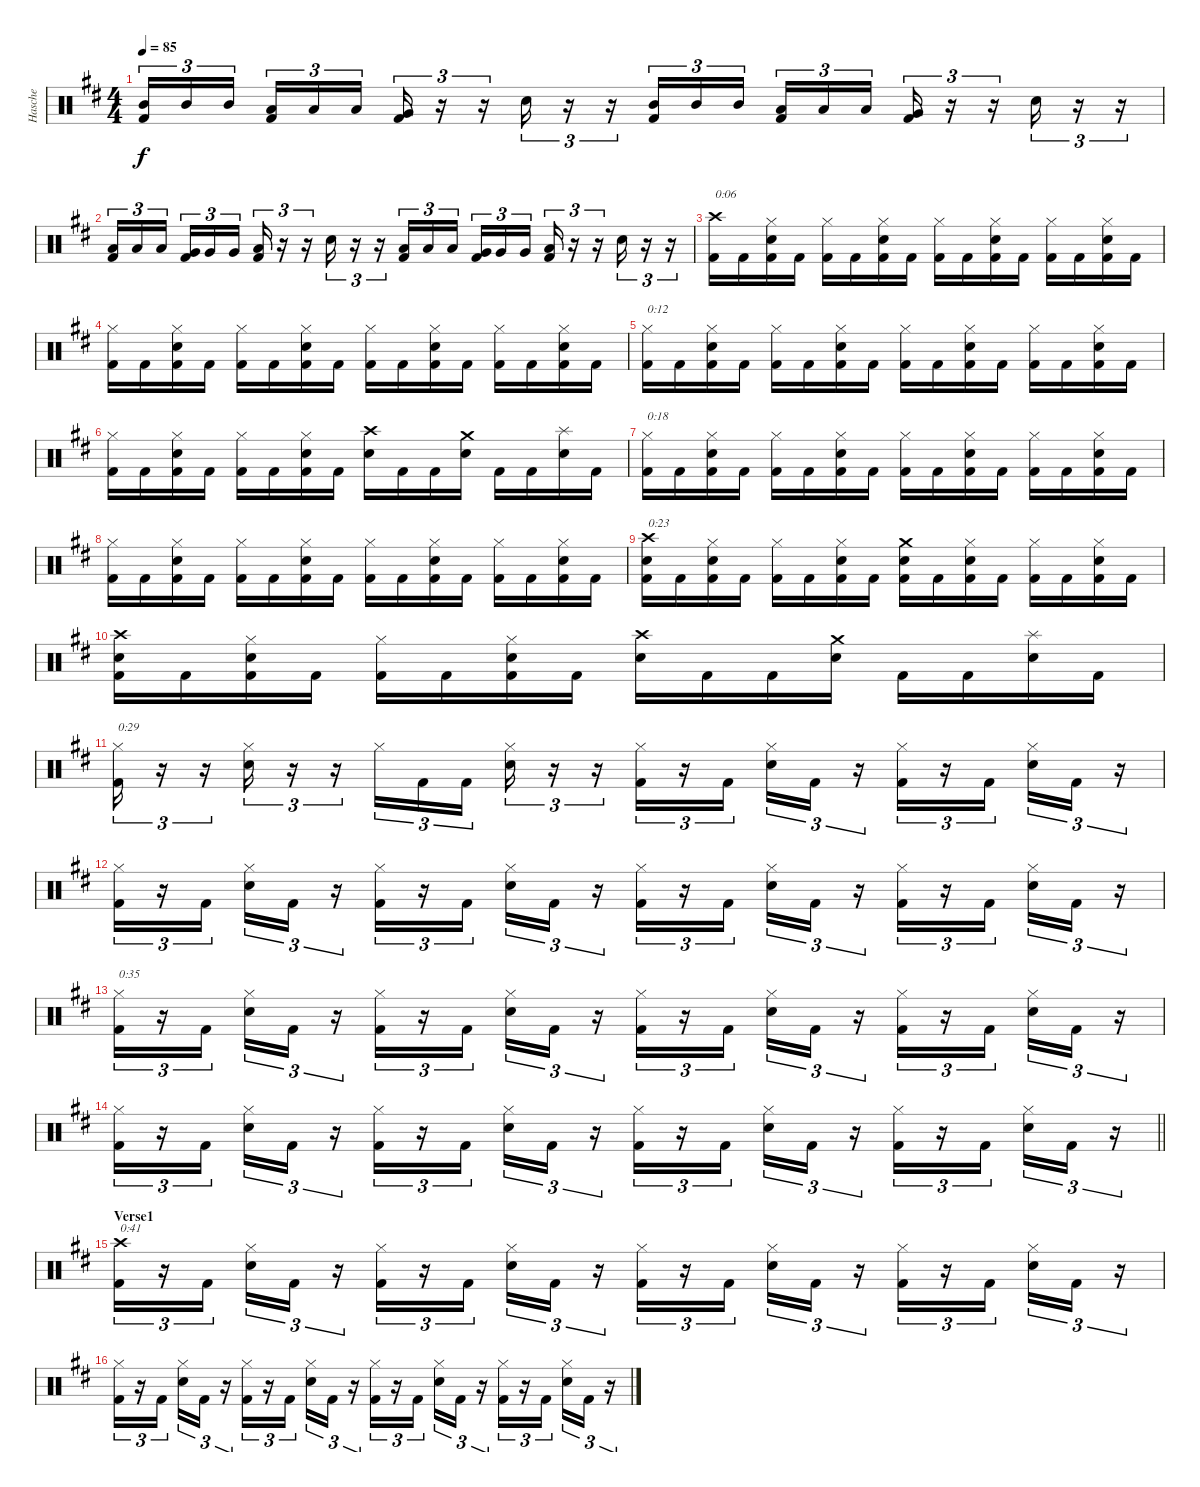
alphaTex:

\track ("Hasche" "Hasche") {instrument percussion}
\staff {score}
\articulation defaults
\ts (4 4)
\tempo 85
\clef neutral
\ks bminor
("Mid Tom (hit)" "Kick (hit) 2").16{tu (3 2) dy f} "Mid Tom (hit)".16{tu (3 2)} "Mid Tom (hit)".16{tu (3 2) beam splitsecondary} ("Low Tom (hit)" "Kick (hit) 2").16{tu (3 2)} "Low Tom (hit)".16{tu (3 2)} "Low Tom (hit)".16{tu (3 2)} ("Very Low Tom (hit)" "Kick (hit) 2").16{tu (3 2)} r.16{tu (3 2)} r.16{tu (3 2)} "Snare (hit) 2".16{tu (3 2)} r.16{tu (3 2)} r.16{tu (3 2)} ("Mid Tom (hit)" "Kick (hit) 2").16{tu (3 2)} "Mid Tom (hit)".16{tu (3 2)} "Mid Tom (hit)".16{tu (3 2) beam splitsecondary} ("Low Tom (hit)" "Kick (hit) 2").16{tu (3 2)} "Low Tom (hit)".16{tu (3 2)} "Low Tom (hit)".16{tu (3 2)} ("Very Low Tom (hit)" "Kick (hit) 2").16{tu (3 2)} r.16{tu (3 2)} r.16{tu (3 2)} "Snare (hit) 2".16{tu (3 2)} r.16{tu (3 2)} r.16{tu (3 2)} |
("Low Tom (hit)" "Kick (hit) 2").16{tu (3 2)} "Low Tom (hit)".16{tu (3 2)} "Low Tom (hit)".16{tu (3 2) beam splitsecondary} ("Very Low Tom (hit)" "Kick (hit) 2").16{tu (3 2)} "Very Low Tom (hit)".16{tu (3 2)} "Very Low Tom (hit)".16{tu (3 2)} ("Low Floor Tom (hit)" "Kick (hit) 2").16{tu (3 2)} r.16{tu (3 2)} r.16{tu (3 2)} "Snare (hit) 2".16{tu (3 2)} r.16{tu (3 2)} r.16{tu (3 2)} ("Low Tom (hit)" "Kick (hit) 2").16{tu (3 2)} "Low Tom (hit)".16{tu (3 2)} "Low Tom (hit)".16{tu (3 2) beam splitsecondary} ("Very Low Tom (hit)" "Kick (hit) 2").16{tu (3 2)} "Very Low Tom (hit)".16{tu (3 2)} "Very Low Tom (hit)".16{tu (3 2)} ("Low Floor Tom (hit)" "Kick (hit) 2").16{tu (3 2)} r.16{tu (3 2)} r.16{tu (3 2)} "Snare (hit) 2".16{tu (3 2)} r.16{tu (3 2)} r.16{tu (3 2)} |
("Crash high (hit)" "Kick (hit) 2").16{txt "0:06"} "Kick (hit) 2".16 ("Hi-Hat (closed)" "Snare (hit) 2" "Kick (hit) 2").16 "Kick (hit) 2".16 ("Hi-Hat (closed)" "Kick (hit) 2").16 "Kick (hit) 2".16 ("Hi-Hat (closed)" "Snare (hit) 2" "Kick (hit) 2").16 "Kick (hit) 2".16 ("Hi-Hat (closed)" "Kick (hit) 2").16 "Kick (hit) 2".16 ("Hi-Hat (closed)" "Snare (hit) 2" "Kick (hit) 2").16 "Kick (hit) 2".16 ("Hi-Hat (closed)" "Kick (hit) 2").16 "Kick (hit) 2".16 ("Hi-Hat (closed)" "Snare (hit) 2" "Kick (hit) 2").16 "Kick (hit) 2".16 |
("Hi-Hat (closed)" "Kick (hit) 2").16 "Kick (hit) 2".16 ("Hi-Hat (closed)" "Snare (hit) 2" "Kick (hit) 2").16 "Kick (hit) 2".16 ("Hi-Hat (closed)" "Kick (hit) 2").16 "Kick (hit) 2".16 ("Hi-Hat (closed)" "Snare (hit) 2" "Kick (hit) 2").16 "Kick (hit) 2".16 ("Hi-Hat (closed)" "Kick (hit) 2").16 "Kick (hit) 2".16 ("Hi-Hat (closed)" "Snare (hit) 2" "Kick (hit) 2").16 "Kick (hit) 2".16 ("Hi-Hat (closed)" "Kick (hit) 2").16 "Kick (hit) 2".16 ("Hi-Hat (closed)" "Snare (hit) 2" "Kick (hit) 2").16 "Kick (hit) 2".16 |
("Hi-Hat (closed)" "Kick (hit) 2").16{txt "0:12"} "Kick (hit) 2".16 ("Hi-Hat (closed)" "Snare (hit) 2" "Kick (hit) 2").16 "Kick (hit) 2".16 ("Hi-Hat (closed)" "Kick (hit) 2").16 "Kick (hit) 2".16 ("Hi-Hat (closed)" "Snare (hit) 2" "Kick (hit) 2").16 "Kick (hit) 2".16 ("Hi-Hat (closed)" "Kick (hit) 2").16 "Kick (hit) 2".16 ("Hi-Hat (closed)" "Snare (hit) 2" "Kick (hit) 2").16 "Kick (hit) 2".16 ("Hi-Hat (closed)" "Kick (hit) 2").16 "Kick (hit) 2".16 ("Hi-Hat (closed)" "Snare (hit) 2" "Kick (hit) 2").16 "Kick (hit) 2".16 |
("Hi-Hat (closed)" "Kick (hit) 2").16 "Kick (hit) 2".16 ("Hi-Hat (closed)" "Snare (hit) 2" "Kick (hit) 2").16 "Kick (hit) 2".16 ("Hi-Hat (closed)" "Kick (hit) 2").16 "Kick (hit) 2".16 ("Hi-Hat (closed)" "Snare (hit) 2" "Kick (hit) 2").16 "Kick (hit) 2".16 ("Crash high (hit)" "Snare (hit) 2").16 "Kick (hit) 2".16 "Kick (hit) 2".16 ("Crash medium (hit)" "Snare (hit) 2").16 "Kick (hit) 2".16 "Kick (hit) 2".16 ("Splash (hit)" "Snare (hit) 2").16 "Kick (hit) 2".16 |
("Hi-Hat (closed)" "Kick (hit) 2").16{txt "0:18"} "Kick (hit) 2".16 ("Hi-Hat (closed)" "Snare (hit) 2" "Kick (hit) 2").16 "Kick (hit) 2".16 ("Hi-Hat (closed)" "Kick (hit) 2").16 "Kick (hit) 2".16 ("Hi-Hat (closed)" "Snare (hit) 2" "Kick (hit) 2").16 "Kick (hit) 2".16 ("Hi-Hat (closed)" "Kick (hit) 2").16 "Kick (hit) 2".16 ("Hi-Hat (closed)" "Snare (hit) 2" "Kick (hit) 2").16 "Kick (hit) 2".16 ("Hi-Hat (closed)" "Kick (hit) 2").16 "Kick (hit) 2".16 ("Hi-Hat (closed)" "Snare (hit) 2" "Kick (hit) 2").16 "Kick (hit) 2".16 |
("Hi-Hat (closed)" "Kick (hit) 2").16 "Kick (hit) 2".16 ("Hi-Hat (closed)" "Snare (hit) 2" "Kick (hit) 2").16 "Kick (hit) 2".16 ("Hi-Hat (closed)" "Kick (hit) 2").16 "Kick (hit) 2".16 ("Hi-Hat (closed)" "Snare (hit) 2" "Kick (hit) 2").16 "Kick (hit) 2".16 ("Hi-Hat (closed)" "Kick (hit) 2").16 "Kick (hit) 2".16 ("Hi-Hat (closed)" "Snare (hit) 2" "Kick (hit) 2").16 "Kick (hit) 2".16 ("Hi-Hat (closed)" "Kick (hit) 2").16 "Kick (hit) 2".16 ("Hi-Hat (closed)" "Snare (hit) 2" "Kick (hit) 2").16 "Kick (hit) 2".16 |
("Crash high (hit)" "Snare (hit) 2" "Kick (hit) 2").16{txt "0:23"} "Kick (hit) 2".16 ("Hi-Hat (closed)" "Snare (hit) 2" "Kick (hit) 2").16 "Kick (hit) 2".16 ("Hi-Hat (closed)" "Kick (hit) 2").16 "Kick (hit) 2".16 ("Hi-Hat (closed)" "Snare (hit) 2" "Kick (hit) 2").16 "Kick (hit) 2".16 ("Crash medium (hit)" "Snare (hit) 2" "Kick (hit) 2").16 "Kick (hit) 2".16 ("Hi-Hat (closed)" "Snare (hit) 2" "Kick (hit) 2").16 "Kick (hit) 2".16 ("Hi-Hat (closed)" "Kick (hit) 2").16 "Kick (hit) 2".16 ("Hi-Hat (closed)" "Snare (hit) 2" "Kick (hit) 2").16 "Kick (hit) 2".16 |
("Crash high (hit)" "Snare (hit) 2" "Kick (hit) 2").16 "Kick (hit) 2".16 ("Hi-Hat (closed)" "Snare (hit) 2" "Kick (hit) 2").16 "Kick (hit) 2".16 ("Hi-Hat (closed)" "Kick (hit) 2").16 "Kick (hit) 2".16 ("Hi-Hat (closed)" "Snare (hit) 2" "Kick (hit) 2").16 "Kick (hit) 2".16 ("Crash high (hit)" "Snare (hit) 2").16 "Kick (hit) 2".16 "Kick (hit) 2".16 ("Crash medium (hit)" "Snare (hit) 2").16 "Kick (hit) 2".16 "Kick (hit) 2".16 ("Splash (hit)" "Snare (hit) 2").16 "Kick (hit) 2".16 |
("Hi-Hat (closed)" "Kick (hit) 2").16{tu (3 2) txt "0:29"} r.16{tu (3 2)} r.16{tu (3 2)} ("Hi-Hat (closed)" "Snare (hit) 2").16{tu (3 2)} r.16{tu (3 2)} r.16{tu (3 2)} "Hi-Hat (closed)".16{tu (3 2)} "Kick (hit) 2".16{tu (3 2)} "Kick (hit) 2".16{tu (3 2) beam splitsecondary} ("Hi-Hat (closed)" "Snare (hit) 2").16{tu (3 2)} r.16{tu (3 2)} r.16{tu (3 2)} ("Hi-Hat (closed)" "Kick (hit) 2").16{tu (3 2)} r.16{tu (3 2)} "Kick (hit) 2".16{tu (3 2) beam splitsecondary} ("Hi-Hat (closed)" "Snare (hit) 2").16{tu (3 2)} "Kick (hit) 2".16{tu (3 2)} r.16{tu (3 2)} ("Hi-Hat (closed)" "Kick (hit) 2").16{tu (3 2)} r.16{tu (3 2)} "Kick (hit) 2".16{tu (3 2) beam splitsecondary} ("Hi-Hat (closed)" "Snare (hit) 2").16{tu (3 2)} "Kick (hit) 2".16{tu (3 2)} r.16{tu (3 2)} |
("Hi-Hat (closed)" "Kick (hit) 2").16{tu (3 2)} r.16{tu (3 2)} "Kick (hit) 2".16{tu (3 2) beam splitsecondary} ("Hi-Hat (closed)" "Snare (hit) 2").16{tu (3 2)} "Kick (hit) 2".16{tu (3 2)} r.16{tu (3 2)} ("Hi-Hat (closed)" "Kick (hit) 2").16{tu (3 2)} r.16{tu (3 2)} "Kick (hit) 2".16{tu (3 2) beam splitsecondary} ("Hi-Hat (closed)" "Snare (hit) 2").16{tu (3 2)} "Kick (hit) 2".16{tu (3 2)} r.16{tu (3 2)} ("Hi-Hat (closed)" "Kick (hit) 2").16{tu (3 2)} r.16{tu (3 2)} "Kick (hit) 2".16{tu (3 2) beam splitsecondary} ("Hi-Hat (closed)" "Snare (hit) 2").16{tu (3 2)} "Kick (hit) 2".16{tu (3 2)} r.16{tu (3 2)} ("Hi-Hat (closed)" "Kick (hit) 2").16{tu (3 2)} r.16{tu (3 2)} "Kick (hit) 2".16{tu (3 2) beam splitsecondary} ("Hi-Hat (closed)" "Snare (hit) 2").16{tu (3 2)} "Kick (hit) 2".16{tu (3 2)} r.16{tu (3 2)} |
("Hi-Hat (closed)" "Kick (hit) 2").16{tu (3 2) txt "0:35"} r.16{tu (3 2)} "Kick (hit) 2".16{tu (3 2) beam splitsecondary} ("Hi-Hat (closed)" "Snare (hit) 2").16{tu (3 2)} "Kick (hit) 2".16{tu (3 2)} r.16{tu (3 2)} ("Hi-Hat (closed)" "Kick (hit) 2").16{tu (3 2)} r.16{tu (3 2)} "Kick (hit) 2".16{tu (3 2) beam splitsecondary} ("Hi-Hat (closed)" "Snare (hit) 2").16{tu (3 2)} "Kick (hit) 2".16{tu (3 2)} r.16{tu (3 2)} ("Hi-Hat (closed)" "Kick (hit) 2").16{tu (3 2)} r.16{tu (3 2)} "Kick (hit) 2".16{tu (3 2) beam splitsecondary} ("Hi-Hat (closed)" "Snare (hit) 2").16{tu (3 2)} "Kick (hit) 2".16{tu (3 2)} r.16{tu (3 2)} ("Hi-Hat (closed)" "Kick (hit) 2").16{tu (3 2)} r.16{tu (3 2)} "Kick (hit) 2".16{tu (3 2) beam splitsecondary} ("Hi-Hat (closed)" "Snare (hit) 2").16{tu (3 2)} "Kick (hit) 2".16{tu (3 2)} r.16{tu (3 2)} |
\barLineRight lightlight
("Hi-Hat (closed)" "Kick (hit) 2").16{tu (3 2)} r.16{tu (3 2)} "Kick (hit) 2".16{tu (3 2) beam splitsecondary} ("Hi-Hat (closed)" "Snare (hit) 2").16{tu (3 2)} "Kick (hit) 2".16{tu (3 2)} r.16{tu (3 2)} ("Hi-Hat (closed)" "Kick (hit) 2").16{tu (3 2)} r.16{tu (3 2)} "Kick (hit) 2".16{tu (3 2) beam splitsecondary} ("Hi-Hat (closed)" "Snare (hit) 2").16{tu (3 2)} "Kick (hit) 2".16{tu (3 2)} r.16{tu (3 2)} ("Hi-Hat (closed)" "Kick (hit) 2").16{tu (3 2)} r.16{tu (3 2)} "Kick (hit) 2".16{tu (3 2) beam splitsecondary} ("Hi-Hat (closed)" "Snare (hit) 2").16{tu (3 2)} "Kick (hit) 2".16{tu (3 2)} r.16{tu (3 2)} ("Hi-Hat (closed)" "Kick (hit) 2").16{tu (3 2)} r.16{tu (3 2)} "Kick (hit) 2".16{tu (3 2) beam splitsecondary} ("Hi-Hat (closed)" "Snare (hit) 2").16{tu (3 2)} "Kick (hit) 2".16{tu (3 2)} r.16{tu (3 2)} |
\section ("" "Verse1")
("Crash high (hit)" "Kick (hit) 2").16{tu (3 2) txt "0:41"} r.16{tu (3 2)} "Kick (hit) 2".16{tu (3 2) beam splitsecondary} ("Hi-Hat (closed)" "Snare (hit) 2").16{tu (3 2)} "Kick (hit) 2".16{tu (3 2)} r.16{tu (3 2)} ("Hi-Hat (closed)" "Kick (hit) 2").16{tu (3 2)} r.16{tu (3 2)} "Kick (hit) 2".16{tu (3 2) beam splitsecondary} ("Hi-Hat (closed)" "Snare (hit) 2").16{tu (3 2)} "Kick (hit) 2".16{tu (3 2)} r.16{tu (3 2)} ("Hi-Hat (closed)" "Kick (hit) 2").16{tu (3 2)} r.16{tu (3 2)} "Kick (hit) 2".16{tu (3 2) beam splitsecondary} ("Hi-Hat (closed)" "Snare (hit) 2").16{tu (3 2)} "Kick (hit) 2".16{tu (3 2)} r.16{tu (3 2)} ("Hi-Hat (closed)" "Kick (hit) 2").16{tu (3 2)} r.16{tu (3 2)} "Kick (hit) 2".16{tu (3 2) beam splitsecondary} ("Hi-Hat (closed)" "Snare (hit) 2").16{tu (3 2)} "Kick (hit) 2".16{tu (3 2)} r.16{tu (3 2)} |
("Hi-Hat (closed)" "Kick (hit) 2").16{tu (3 2)} r.16{tu (3 2)} "Kick (hit) 2".16{tu (3 2) beam splitsecondary} ("Hi-Hat (closed)" "Snare (hit) 2").16{tu (3 2)} "Kick (hit) 2".16{tu (3 2)} r.16{tu (3 2)} ("Hi-Hat (closed)" "Kick (hit) 2").16{tu (3 2)} r.16{tu (3 2)} "Kick (hit) 2".16{tu (3 2) beam splitsecondary} ("Hi-Hat (closed)" "Snare (hit) 2").16{tu (3 2)} "Kick (hit) 2".16{tu (3 2)} r.16{tu (3 2)} ("Hi-Hat (closed)" "Kick (hit) 2").16{tu (3 2)} r.16{tu (3 2)} "Kick (hit) 2".16{tu (3 2) beam splitsecondary} ("Hi-Hat (closed)" "Snare (hit) 2").16{tu (3 2)} "Kick (hit) 2".16{tu (3 2)} r.16{tu (3 2)} ("Hi-Hat (closed)" "Kick (hit) 2").16{tu (3 2)} r.16{tu (3 2)} "Kick (hit) 2".16{tu (3 2) beam splitsecondary} ("Hi-Hat (closed)" "Snare (hit) 2").16{tu (3 2)} "Kick (hit) 2".16{tu (3 2)} r.16{tu (3 2)}
